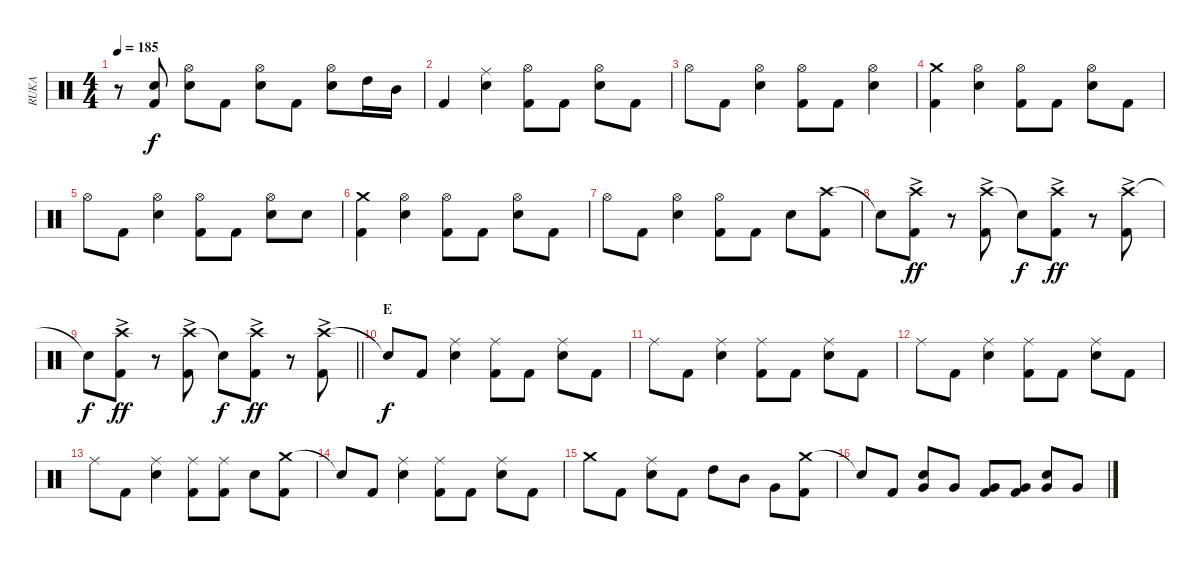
\track ("RUKA" "RUKA") {instrument percussion}
\staff {score}
\articulation defaults
\ts (4 4)
\tempo 185
\clef neutral
\ks c
r.8{dy f} ("Snare (hit)"{t} "Kick (hit) 2").8 ("Hi-Hat (open)" "Electric Snare (hit)").8 "Kick (hit) 2".8 ("Hi-Hat (open)" "Electric Snare (hit)").8 "Kick (hit) 2".8 ("Hi-Hat (open)" "Electric Snare (hit)").8 "High Tom (hit)".16 "Mid Tom (hit)".16 |
"Kick (hit) 2".4 ("Ride (middle)" "Electric Snare (hit)").4 ("Hi-Hat (open)" "Kick (hit) 2").8 "Kick (hit) 2".8 ("Hi-Hat (open)" "Electric Snare (hit)").8 "Kick (hit) 2".8 |
"Hi-Hat (open)".8 "Kick (hit) 2".8 ("Hi-Hat (open)" "Electric Snare (hit)").4 ("Hi-Hat (open)" "Kick (hit) 2").8 "Kick (hit) 2".8 ("Hi-Hat (open)" "Electric Snare (hit)").4 |
("Crash medium (hit)" "Kick (hit) 2").4 ("Hi-Hat (open)" "Electric Snare (hit)").4 ("Hi-Hat (open)" "Kick (hit) 2").8 "Kick (hit) 2".8 ("Hi-Hat (open)" "Electric Snare (hit)").8 "Kick (hit) 2".8 |
"Hi-Hat (open)".8 "Kick (hit) 2".8 ("Hi-Hat (open)" "Electric Snare (hit)").4 ("Hi-Hat (open)" "Kick (hit) 2").8 "Kick (hit) 2".8 ("Hi-Hat (open)" "Electric Snare (hit)").8 "Electric Snare (hit)".8 |
("Crash medium (hit)" "Kick (hit) 2").4 ("Hi-Hat (open)" "Electric Snare (hit)").4 ("Hi-Hat (open)" "Kick (hit) 2").8 "Kick (hit) 2".8 ("Hi-Hat (open)" "Electric Snare (hit)").8 "Kick (hit) 2".8 |
"Hi-Hat (open)".8 "Kick (hit) 2".8 ("Hi-Hat (open)" "Electric Snare (hit)").4 ("Hi-Hat (open)" "Kick (hit) 2").8 "Kick (hit) 2".8 "Electric Snare (hit)".8 ("Crash high (hit)" "Kick (hit) 2").8 |
"Snare (hit)"{t}.8 ("Crash high (hit)"{ac} "Kick (hit) 2").8{dy ff} r.8 ("Crash high (hit)"{ac} "Kick (hit) 2").8 "Snare (hit)"{t}.8{dy f} ("Crash high (hit)"{ac} "Kick (hit) 2").8{dy ff} r.8 ("Crash high (hit)"{ac} "Kick (hit) 2").8 |
\barLineRight lightlight "Snare (hit)"{t}.8{dy f}
("Crash high (hit)"{ac} "Kick (hit) 2").8{dy ff} r.8 ("Crash high (hit)"{ac} "Kick (hit) 2").8 "Snare (hit)"{t}.8{dy f} ("Crash high (hit)"{ac} "Kick (hit) 2").8{dy ff} r.8 ("Crash high (hit)"{ac} "Kick (hit) 2").8 |
\section ("" "E")
"Snare (hit)"{t}.8{dy f} "Kick (hit) 2".8 ("Ride (middle)" "Electric Snare (hit)").4 ("Ride (middle)" "Kick (hit) 2").8 "Kick (hit) 2".8 ("Ride (middle)" "Electric Snare (hit)").8 "Kick (hit) 2".8 |
"Ride (middle)".8 "Kick (hit) 2".8 ("Ride (middle)" "Electric Snare (hit)").4 ("Ride (middle)" "Kick (hit) 2").8 "Kick (hit) 2".8 ("Ride (middle)" "Electric Snare (hit)").8 "Kick (hit) 2".8 |
"Ride (middle)".8 "Kick (hit) 2".8 ("Ride (middle)" "Electric Snare (hit)").4 ("Ride (middle)" "Kick (hit) 2").8 "Kick (hit) 2".8 ("Ride (middle)" "Electric Snare (hit)").8 "Kick (hit) 2".8 |
"Ride (middle)".8 "Kick (hit) 2".8 ("Ride (middle)" "Electric Snare (hit)").4 ("Ride (middle)" "Kick (hit) 2").8 ("Ride (middle)" "Kick (hit) 2").8 "Electric Snare (hit)".8 ("Crash medium (hit)" "Kick (hit) 2").8 |
"Snare (hit)"{t}.8 "Kick (hit) 2".8 ("Ride (middle)" "Electric Snare (hit)").4 ("Ride (middle)" "Kick (hit) 2").8 "Kick (hit) 2".8 ("Ride (middle)" "Electric Snare (hit)").8 "Kick (hit) 2".8 |
"Crash medium (hit)".8 "Kick (hit) 2".8 ("Ride (middle)" "Electric Snare (hit)").8 "Kick (hit) 2".8 "High Tom (hit)".8 "Mid Tom (hit)".8 "Very Low Tom (hit)".8 ("Crash medium (hit)" "Kick (hit) 2").8 |
"Snare (hit)"{t}.8 "Kick (hit) 2".8 ("Very Low Tom (hit)" "Electric Snare (hit)").8 "Very Low Tom (hit)".8 ("Very Low Tom (hit)" "Kick (hit) 2").8 ("Very Low Tom (hit)" "Kick (hit) 2").8 ("Electric Snare (hit)" "Very Low Tom (hit)").8 "Very Low Tom (hit)".8
